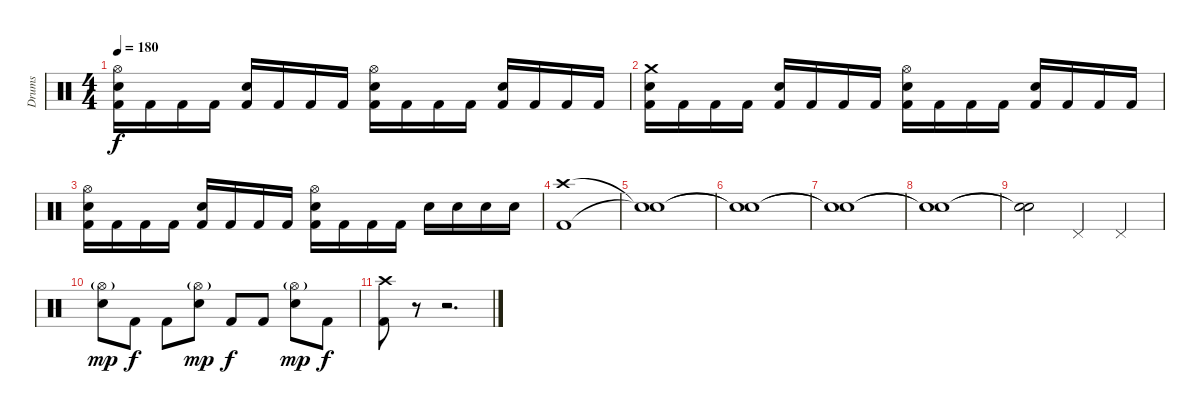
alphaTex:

\track ("Drums" "Drums") {instrument percussion}
\staff {score}
\articulation defaults
\ts (4 4)
\tempo 180
\clef neutral
\ks c
("Hi-Hat (open)" "Electric Snare (hit)" "Kick (hit) 2").16{dy f} "Kick (hit) 2".16 "Kick (hit) 2".16 "Kick (hit) 2".16 ("Electric Snare (hit)" "Kick (hit) 2").16 "Kick (hit) 2".16 "Kick (hit) 2".16 "Kick (hit) 2".16 ("Hi-Hat (open)" "Electric Snare (hit)" "Kick (hit) 2").16 "Kick (hit) 2".16 "Kick (hit) 2".16 "Kick (hit) 2".16 ("Electric Snare (hit)" "Kick (hit) 2").16 "Kick (hit) 2".16 "Kick (hit) 2".16 "Kick (hit) 2".16 |
("Crash medium (hit)" "Electric Snare (hit)" "Kick (hit) 2").16 "Kick (hit) 2".16 "Kick (hit) 2".16 "Kick (hit) 2".16 ("Electric Snare (hit)" "Kick (hit) 2").16 "Kick (hit) 2".16 "Kick (hit) 2".16 "Kick (hit) 2".16 ("Hi-Hat (open)" "Electric Snare (hit)" "Kick (hit) 2").16 "Kick (hit) 2".16 "Kick (hit) 2".16 "Kick (hit) 2".16 ("Electric Snare (hit)" "Kick (hit) 2").16 "Kick (hit) 2".16 "Kick (hit) 2".16 "Kick (hit) 2".16 |
("Hi-Hat (open)" "Electric Snare (hit)" "Kick (hit) 2").16 "Kick (hit) 2".16 "Kick (hit) 2".16 "Kick (hit) 2".16 ("Electric Snare (hit)" "Kick (hit) 2").16 "Kick (hit) 2".16 "Kick (hit) 2".16 "Kick (hit) 2".16 ("Hi-Hat (open)" "Electric Snare (hit)" "Kick (hit) 2").16 "Kick (hit) 2".16 "Kick (hit) 2".16 "Kick (hit) 2".16 "Electric Snare (hit)".16 "Electric Snare (hit)".16 "Electric Snare (hit)".16 "Electric Snare (hit)".16 |
("Crash high (hit)" "Kick (hit) 2").1 |
("Snare (hit)"{t} "Snare (hit)"{t}).1 |
("Snare (hit)"{t} "Snare (hit)"{t}).1 |
("Snare (hit)"{t} "Snare (hit)"{t}).1 |
("Snare (hit)"{t} "Snare (hit)"{t}).1 |
("Snare (hit)"{t} "Snare (hit)"{t}).2 "Pedal Hi-Hat (hit)".4 "Pedal Hi-Hat (hit)".4 |
("Hi-Hat (open)"{g} "Electric Snare (hit)").8{dy mp} "Kick (hit) 2".8{dy f} "Kick (hit) 2".8 ("Hi-Hat (open)"{g} "Electric Snare (hit)").8{dy mp} "Kick (hit) 2".8{dy f} "Kick (hit) 2".8 ("Hi-Hat (open)"{g} "Electric Snare (hit)").8{dy mp} "Kick (hit) 2".8{dy f} |
("Crash high (hit)" "Kick (hit) 2").8 r.8 r.2{d}
